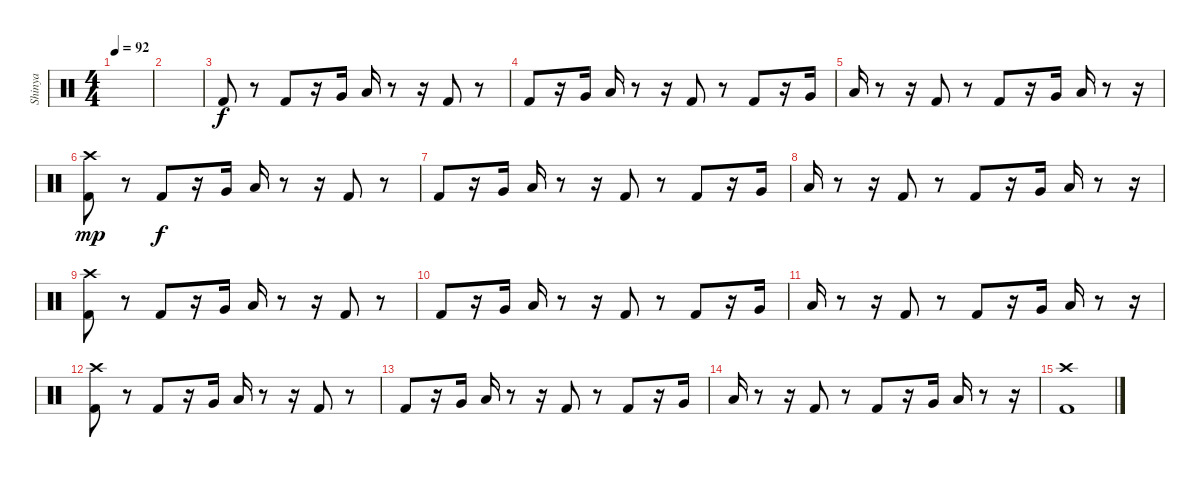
\track ("Shinya" "Shinya") {instrument percussion}
\staff {score}
\articulation defaults
\ts (4 4)
\tempo 92
\clef neutral
\ks c
|
|
"Kick (hit) 2".8 r.8 "Kick (hit) 2".8 r.16 "Very Low Tom (hit)".16 "Low Floor Tom (hit)".16 r.8 r.16 "Kick (hit) 2".8 r.8 |
"Kick (hit) 2".8 r.16 "Very Low Tom (hit)".16 "Low Floor Tom (hit)".16 r.8 r.16 "Kick (hit) 2".8 r.8 "Kick (hit) 2".8 r.16 "Very Low Tom (hit)".16 |
"Low Floor Tom (hit)".16 r.8 r.16 "Kick (hit) 2".8 r.8 "Kick (hit) 2".8 r.16 "Very Low Tom (hit)".16 "Low Floor Tom (hit)".16 r.8 r.16 |
("Crash high (hit)" "Kick (hit) 2").8{dy mp} r.8 "Kick (hit) 2".8{dy f} r.16 "Very Low Tom (hit)".16 "Low Floor Tom (hit)".16 r.8 r.16 "Kick (hit) 2".8 r.8 |
"Kick (hit) 2".8 r.16 "Very Low Tom (hit)".16 "Low Floor Tom (hit)".16 r.8 r.16 "Kick (hit) 2".8 r.8 "Kick (hit) 2".8 r.16 "Very Low Tom (hit)".16 |
"Low Floor Tom (hit)".16 r.8 r.16 "Kick (hit) 2".8 r.8 "Kick (hit) 2".8 r.16 "Very Low Tom (hit)".16 "Low Floor Tom (hit)".16 r.8 r.16 |
("Crash high (hit)" "Kick (hit) 2").8 r.8 "Kick (hit) 2".8 r.16 "Very Low Tom (hit)".16 "Low Floor Tom (hit)".16 r.8 r.16 "Kick (hit) 2".8 r.8 |
"Kick (hit) 2".8 r.16 "Very Low Tom (hit)".16 "Low Floor Tom (hit)".16 r.8 r.16 "Kick (hit) 2".8 r.8 "Kick (hit) 2".8 r.16 "Very Low Tom (hit)".16 |
"Low Floor Tom (hit)".16 r.8 r.16 "Kick (hit) 2".8 r.8 "Kick (hit) 2".8 r.16 "Very Low Tom (hit)".16 "Low Floor Tom (hit)".16 r.8 r.16 |
("Crash high (hit)" "Kick (hit) 2").8 r.8 "Kick (hit) 2".8 r.16 "Very Low Tom (hit)".16 "Low Floor Tom (hit)".16 r.8 r.16 "Kick (hit) 2".8 r.8 |
"Kick (hit) 2".8 r.16 "Very Low Tom (hit)".16 "Low Floor Tom (hit)".16 r.8 r.16 "Kick (hit) 2".8 r.8 "Kick (hit) 2".8 r.16 "Very Low Tom (hit)".16 |
"Low Floor Tom (hit)".16 r.8 r.16 "Kick (hit) 2".8 r.8 "Kick (hit) 2".8 r.16 "Very Low Tom (hit)".16 "Low Floor Tom (hit)".16 r.8 r.16 |
("Crash high (hit)" "Kick (hit) 2").1
